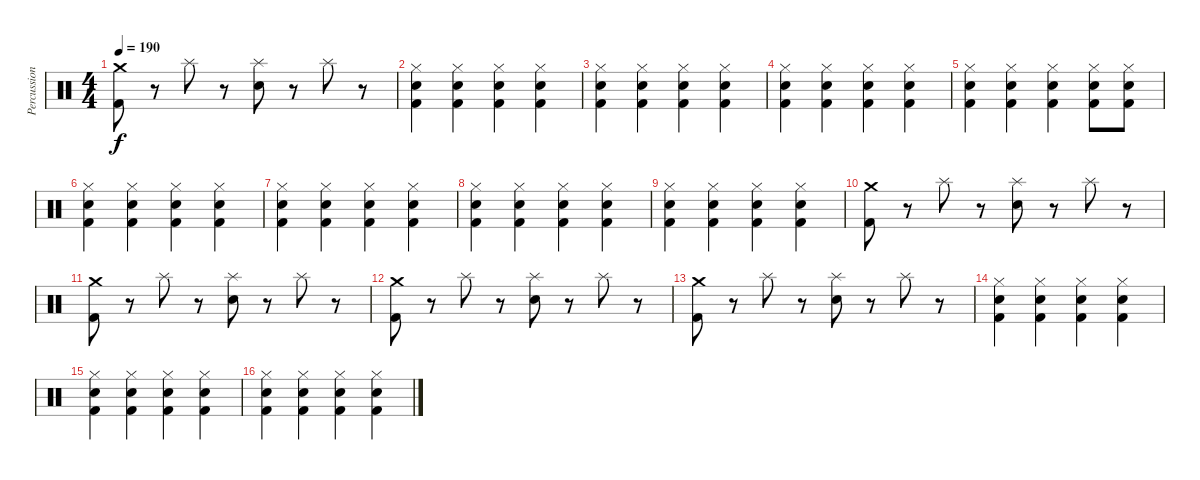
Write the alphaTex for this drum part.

\track ("Percussion" "Percussion") {instrument percussion}
\staff {score}
\articulation defaults
\ts (4 4)
\tempo 190
\clef neutral
\ks c
("Crash medium (hit)" "Kick (hit) 2").8{dy f} r.8 "Splash (hit)".8 r.8 ("Splash (hit)" "Electric Snare (hit)").8 r.8 "Splash (hit)".8 r.8 |
("Hi-Hat (closed)" "Electric Snare (hit)" "Kick (hit) 2").4 ("Hi-Hat (closed)" "Electric Snare (hit)" "Kick (hit) 2").4 ("Hi-Hat (closed)" "Electric Snare (hit)" "Kick (hit) 2").4 ("Hi-Hat (closed)" "Electric Snare (hit)" "Kick (hit) 2").4 |
("Hi-Hat (closed)" "Electric Snare (hit)" "Kick (hit) 2").4 ("Hi-Hat (closed)" "Electric Snare (hit)" "Kick (hit) 2").4 ("Hi-Hat (closed)" "Electric Snare (hit)" "Kick (hit) 2").4 ("Hi-Hat (closed)" "Electric Snare (hit)" "Kick (hit) 2").4 |
("Hi-Hat (closed)" "Electric Snare (hit)" "Kick (hit) 2").4 ("Hi-Hat (closed)" "Electric Snare (hit)" "Kick (hit) 2").4 ("Hi-Hat (closed)" "Electric Snare (hit)" "Kick (hit) 2").4 ("Hi-Hat (closed)" "Electric Snare (hit)" "Kick (hit) 2").4 |
("Hi-Hat (closed)" "Electric Snare (hit)" "Kick (hit) 2").4 ("Hi-Hat (closed)" "Electric Snare (hit)" "Kick (hit) 2").4 ("Hi-Hat (closed)" "Electric Snare (hit)" "Kick (hit) 2").4 ("Hi-Hat (closed)" "Electric Snare (hit)" "Kick (hit) 2").8 ("Hi-Hat (closed)" "Electric Snare (hit)" "Kick (hit) 2").8 |
("Hi-Hat (closed)" "Electric Snare (hit)" "Kick (hit) 2").4 ("Hi-Hat (closed)" "Electric Snare (hit)" "Kick (hit) 2").4 ("Hi-Hat (closed)" "Electric Snare (hit)" "Kick (hit) 2").4 ("Hi-Hat (closed)" "Electric Snare (hit)" "Kick (hit) 2").4 |
("Hi-Hat (closed)" "Electric Snare (hit)" "Kick (hit) 2").4 ("Hi-Hat (closed)" "Electric Snare (hit)" "Kick (hit) 2").4 ("Hi-Hat (closed)" "Electric Snare (hit)" "Kick (hit) 2").4 ("Hi-Hat (closed)" "Electric Snare (hit)" "Kick (hit) 2").4 |
("Hi-Hat (closed)" "Electric Snare (hit)" "Kick (hit) 2").4 ("Hi-Hat (closed)" "Electric Snare (hit)" "Kick (hit) 2").4 ("Hi-Hat (closed)" "Electric Snare (hit)" "Kick (hit) 2").4 ("Hi-Hat (closed)" "Electric Snare (hit)" "Kick (hit) 2").4 |
("Hi-Hat (closed)" "Electric Snare (hit)" "Kick (hit) 2").4 ("Hi-Hat (closed)" "Electric Snare (hit)" "Kick (hit) 2").4 ("Hi-Hat (closed)" "Electric Snare (hit)" "Kick (hit) 2").4 ("Hi-Hat (closed)" "Electric Snare (hit)" "Kick (hit) 2").4 |
("Crash medium (hit)" "Kick (hit) 2").8 r.8 "Splash (hit)".8 r.8 ("Splash (hit)" "Electric Snare (hit)").8 r.8 "Splash (hit)".8 r.8 |
("Crash medium (hit)" "Kick (hit) 2").8 r.8 "Splash (hit)".8 r.8 ("Splash (hit)" "Electric Snare (hit)").8 r.8 "Splash (hit)".8 r.8 |
("Crash medium (hit)" "Kick (hit) 2").8 r.8 "Splash (hit)".8 r.8 ("Splash (hit)" "Electric Snare (hit)").8 r.8 "Splash (hit)".8 r.8 |
("Crash medium (hit)" "Kick (hit) 2").8 r.8 "Splash (hit)".8 r.8 ("Splash (hit)" "Electric Snare (hit)").8 r.8 "Splash (hit)".8 r.8 |
("Hi-Hat (closed)" "Electric Snare (hit)" "Kick (hit) 2").4 ("Hi-Hat (closed)" "Electric Snare (hit)" "Kick (hit) 2").4 ("Hi-Hat (closed)" "Electric Snare (hit)" "Kick (hit) 2").4 ("Hi-Hat (closed)" "Electric Snare (hit)" "Kick (hit) 2").4 |
("Hi-Hat (closed)" "Electric Snare (hit)" "Kick (hit) 2").4 ("Hi-Hat (closed)" "Electric Snare (hit)" "Kick (hit) 2").4 ("Hi-Hat (closed)" "Electric Snare (hit)" "Kick (hit) 2").4 ("Hi-Hat (closed)" "Electric Snare (hit)" "Kick (hit) 2").4 |
("Hi-Hat (closed)" "Electric Snare (hit)" "Kick (hit) 2").4 ("Hi-Hat (closed)" "Electric Snare (hit)" "Kick (hit) 2").4 ("Hi-Hat (closed)" "Electric Snare (hit)" "Kick (hit) 2").4 ("Hi-Hat (closed)" "Electric Snare (hit)" "Kick (hit) 2").4
